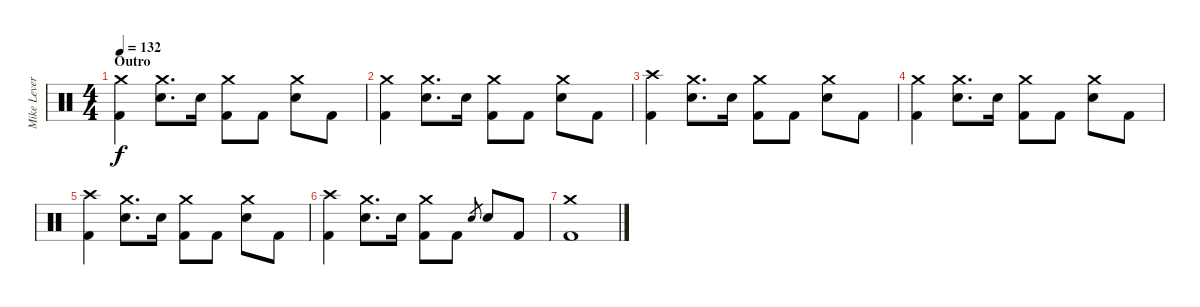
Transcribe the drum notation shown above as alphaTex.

\track ("Mike Leverence - Drums" "Mike Lever") {instrument percussion}
\staff {score}
\articulation defaults
\ts (4 4)
\section ("" "Outro")
\tempo 132
\clef neutral
\ks c
("Crash medium (hit)" "Kick (hit) 2").4{dy f} ("Crash medium (hit)" "Electric Snare (hit)").8{d} "Electric Snare (hit)".16 ("Crash medium (hit)" "Kick (hit) 2").8 "Kick (hit) 2".8 ("Crash medium (hit)" "Electric Snare (hit)").8 "Kick (hit) 2".8 |
("Crash medium (hit)" "Kick (hit) 2").4 ("Crash medium (hit)" "Electric Snare (hit)").8{d} "Electric Snare (hit)".16 ("Crash medium (hit)" "Kick (hit) 2").8 "Kick (hit) 2".8 ("Crash medium (hit)" "Electric Snare (hit)").8 "Kick (hit) 2".8 |
("Crash high (hit)" "Kick (hit) 2").4 ("Crash medium (hit)" "Electric Snare (hit)").8{d} "Electric Snare (hit)".16 ("Crash medium (hit)" "Kick (hit) 2").8 "Kick (hit) 2".8 ("Crash medium (hit)" "Electric Snare (hit)").8 "Kick (hit) 2".8 |
("Crash medium (hit)" "Kick (hit) 2").4 ("Crash medium (hit)" "Electric Snare (hit)").8{d} "Electric Snare (hit)".16 ("Crash medium (hit)" "Kick (hit) 2").8 "Kick (hit) 2".8 ("Crash medium (hit)" "Electric Snare (hit)").8 "Kick (hit) 2".8 |
("Crash high (hit)" "Kick (hit) 2").4 ("Crash medium (hit)" "Electric Snare (hit)").8{d} "Electric Snare (hit)".16 ("Crash medium (hit)" "Kick (hit) 2").8 "Kick (hit) 2".8 ("Crash medium (hit)" "Electric Snare (hit)").8 "Kick (hit) 2".8 |
("Crash high (hit)" "Kick (hit) 2").4 ("Crash medium (hit)" "Electric Snare (hit)").8{d} "Electric Snare (hit)".16 ("Crash medium (hit)" "Kick (hit) 2").8 "Kick (hit) 2".8 "Electric Snare (hit)".8{gr} "Electric Snare (hit)".8 "Kick (hit) 2".8 |
("Crash medium (hit)" "Kick (hit) 2").1
